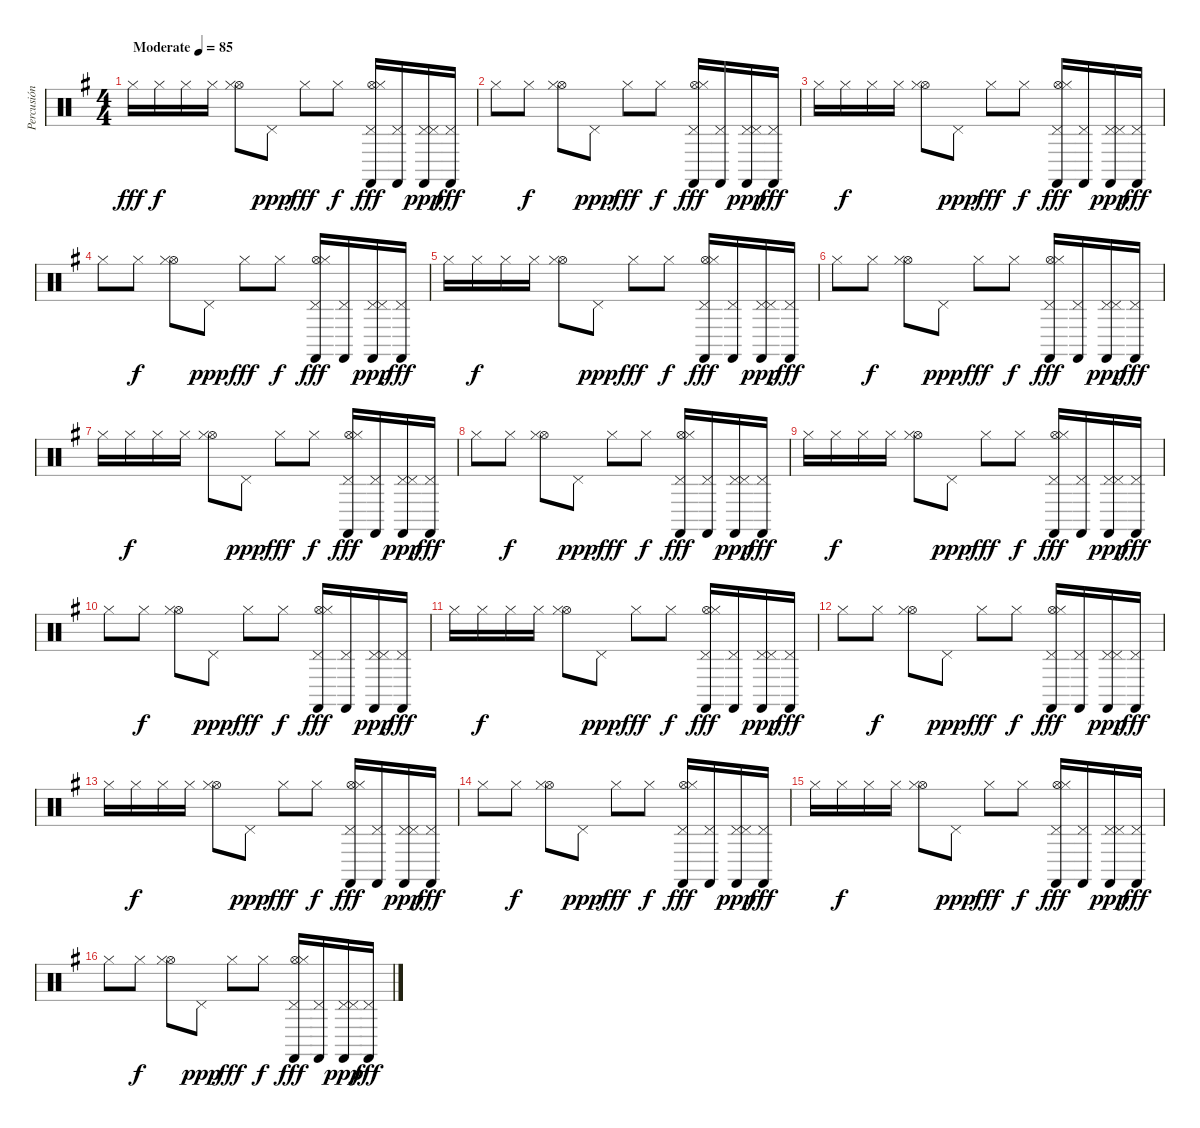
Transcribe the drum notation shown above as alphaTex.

\track ("Percusión" "Percusión") {instrument percussion}
\staff {score}
\articulation defaults
\ts (4 4)
\tempo (85 "Moderate")
\clef neutral
\ks g "Hi-Hat (closed)".16{dy fff} "Hi-Hat (closed)".16{dy f} "Hi-Hat (closed)".16 "Hi-Hat (closed)".16
("Hi-Hat (open)" "Hi-Hat (closed)").8 "Pedal Hi-Hat (hit)".8{dy ppp} "Hi-Hat (closed)".8{dy fff} "Hi-Hat (closed)".8{dy f} ("Pedal Hi-Hat (hit)" "Castanets (hit)" "Hi-Hat (open)" "Hi-Hat (closed)").16{dy fff} ("Pedal Hi-Hat (hit)" "Castanets (hit)").16 ("Pedal Hi-Hat (hit)" "Castanets (hit)" "Pedal Hi-Hat (hit)").16{dy ppp} ("Pedal Hi-Hat (hit)" "Castanets (hit)").16{dy fff} |
"Hi-Hat (closed)".8 "Hi-Hat (closed)".8{dy f} ("Hi-Hat (open)" "Hi-Hat (closed)").8 "Pedal Hi-Hat (hit)".8{dy ppp} "Hi-Hat (closed)".8{dy fff} "Hi-Hat (closed)".8{dy f} ("Pedal Hi-Hat (hit)" "Castanets (hit)" "Hi-Hat (open)" "Hi-Hat (closed)").16{dy fff} ("Pedal Hi-Hat (hit)" "Castanets (hit)").16 ("Pedal Hi-Hat (hit)" "Castanets (hit)" "Pedal Hi-Hat (hit)").16{dy ppp} ("Pedal Hi-Hat (hit)" "Castanets (hit)").16{dy fff} |
"Hi-Hat (closed)".16 "Hi-Hat (closed)".16{dy f} "Hi-Hat (closed)".16 "Hi-Hat (closed)".16 ("Hi-Hat (open)" "Hi-Hat (closed)").8 "Pedal Hi-Hat (hit)".8{dy ppp} "Hi-Hat (closed)".8{dy fff} "Hi-Hat (closed)".8{dy f} ("Pedal Hi-Hat (hit)" "Castanets (hit)" "Hi-Hat (open)" "Hi-Hat (closed)").16{dy fff} ("Pedal Hi-Hat (hit)" "Castanets (hit)").16 ("Pedal Hi-Hat (hit)" "Castanets (hit)" "Pedal Hi-Hat (hit)").16{dy ppp} ("Pedal Hi-Hat (hit)" "Castanets (hit)").16{dy fff} |
"Hi-Hat (closed)".8 "Hi-Hat (closed)".8{dy f} ("Hi-Hat (open)" "Hi-Hat (closed)").8 "Pedal Hi-Hat (hit)".8{dy ppp} "Hi-Hat (closed)".8{dy fff} "Hi-Hat (closed)".8{dy f} ("Pedal Hi-Hat (hit)" "Castanets (hit)" "Hi-Hat (open)" "Hi-Hat (closed)").16{dy fff} ("Pedal Hi-Hat (hit)" "Castanets (hit)").16 ("Pedal Hi-Hat (hit)" "Castanets (hit)" "Pedal Hi-Hat (hit)").16{dy ppp} ("Pedal Hi-Hat (hit)" "Castanets (hit)").16{dy fff} |
"Hi-Hat (closed)".16 "Hi-Hat (closed)".16{dy f} "Hi-Hat (closed)".16 "Hi-Hat (closed)".16 ("Hi-Hat (open)" "Hi-Hat (closed)").8 "Pedal Hi-Hat (hit)".8{dy ppp} "Hi-Hat (closed)".8{dy fff} "Hi-Hat (closed)".8{dy f} ("Pedal Hi-Hat (hit)" "Castanets (hit)" "Hi-Hat (open)" "Hi-Hat (closed)").16{dy fff} ("Pedal Hi-Hat (hit)" "Castanets (hit)").16 ("Pedal Hi-Hat (hit)" "Castanets (hit)" "Pedal Hi-Hat (hit)").16{dy ppp} ("Pedal Hi-Hat (hit)" "Castanets (hit)").16{dy fff} |
"Hi-Hat (closed)".8 "Hi-Hat (closed)".8{dy f} ("Hi-Hat (open)" "Hi-Hat (closed)").8 "Pedal Hi-Hat (hit)".8{dy ppp} "Hi-Hat (closed)".8{dy fff} "Hi-Hat (closed)".8{dy f} ("Pedal Hi-Hat (hit)" "Castanets (hit)" "Hi-Hat (open)" "Hi-Hat (closed)").16{dy fff} ("Pedal Hi-Hat (hit)" "Castanets (hit)").16 ("Pedal Hi-Hat (hit)" "Castanets (hit)" "Pedal Hi-Hat (hit)").16{dy ppp} ("Pedal Hi-Hat (hit)" "Castanets (hit)").16{dy fff} |
"Hi-Hat (closed)".16 "Hi-Hat (closed)".16{dy f} "Hi-Hat (closed)".16 "Hi-Hat (closed)".16 ("Hi-Hat (open)" "Hi-Hat (closed)").8 "Pedal Hi-Hat (hit)".8{dy ppp} "Hi-Hat (closed)".8{dy fff} "Hi-Hat (closed)".8{dy f} ("Pedal Hi-Hat (hit)" "Castanets (hit)" "Hi-Hat (open)" "Hi-Hat (closed)").16{dy fff} ("Pedal Hi-Hat (hit)" "Castanets (hit)").16 ("Pedal Hi-Hat (hit)" "Castanets (hit)" "Pedal Hi-Hat (hit)").16{dy ppp} ("Pedal Hi-Hat (hit)" "Castanets (hit)").16{dy fff} |
"Hi-Hat (closed)".8 "Hi-Hat (closed)".8{dy f} ("Hi-Hat (open)" "Hi-Hat (closed)").8 "Pedal Hi-Hat (hit)".8{dy ppp} "Hi-Hat (closed)".8{dy fff} "Hi-Hat (closed)".8{dy f} ("Pedal Hi-Hat (hit)" "Castanets (hit)" "Hi-Hat (open)" "Hi-Hat (closed)").16{dy fff} ("Pedal Hi-Hat (hit)" "Castanets (hit)").16 ("Pedal Hi-Hat (hit)" "Castanets (hit)" "Pedal Hi-Hat (hit)").16{dy ppp} ("Pedal Hi-Hat (hit)" "Castanets (hit)").16{dy fff} |
"Hi-Hat (closed)".16 "Hi-Hat (closed)".16{dy f} "Hi-Hat (closed)".16 "Hi-Hat (closed)".16 ("Hi-Hat (open)" "Hi-Hat (closed)").8 "Pedal Hi-Hat (hit)".8{dy ppp} "Hi-Hat (closed)".8{dy fff} "Hi-Hat (closed)".8{dy f} ("Pedal Hi-Hat (hit)" "Castanets (hit)" "Hi-Hat (open)" "Hi-Hat (closed)").16{dy fff} ("Pedal Hi-Hat (hit)" "Castanets (hit)").16 ("Pedal Hi-Hat (hit)" "Castanets (hit)" "Pedal Hi-Hat (hit)").16{dy ppp} ("Pedal Hi-Hat (hit)" "Castanets (hit)").16{dy fff} |
"Hi-Hat (closed)".8 "Hi-Hat (closed)".8{dy f} ("Hi-Hat (open)" "Hi-Hat (closed)").8 "Pedal Hi-Hat (hit)".8{dy ppp} "Hi-Hat (closed)".8{dy fff} "Hi-Hat (closed)".8{dy f} ("Pedal Hi-Hat (hit)" "Castanets (hit)" "Hi-Hat (open)" "Hi-Hat (closed)").16{dy fff} ("Pedal Hi-Hat (hit)" "Castanets (hit)").16 ("Pedal Hi-Hat (hit)" "Castanets (hit)" "Pedal Hi-Hat (hit)").16{dy ppp} ("Pedal Hi-Hat (hit)" "Castanets (hit)").16{dy fff} |
"Hi-Hat (closed)".16 "Hi-Hat (closed)".16{dy f} "Hi-Hat (closed)".16 "Hi-Hat (closed)".16 ("Hi-Hat (open)" "Hi-Hat (closed)").8 "Pedal Hi-Hat (hit)".8{dy ppp} "Hi-Hat (closed)".8{dy fff} "Hi-Hat (closed)".8{dy f} ("Pedal Hi-Hat (hit)" "Castanets (hit)" "Hi-Hat (open)" "Hi-Hat (closed)").16{dy fff} ("Pedal Hi-Hat (hit)" "Castanets (hit)").16 ("Pedal Hi-Hat (hit)" "Castanets (hit)" "Pedal Hi-Hat (hit)").16{dy ppp} ("Pedal Hi-Hat (hit)" "Castanets (hit)").16{dy fff} |
"Hi-Hat (closed)".8 "Hi-Hat (closed)".8{dy f} ("Hi-Hat (open)" "Hi-Hat (closed)").8 "Pedal Hi-Hat (hit)".8{dy ppp} "Hi-Hat (closed)".8{dy fff} "Hi-Hat (closed)".8{dy f} ("Pedal Hi-Hat (hit)" "Castanets (hit)" "Hi-Hat (open)" "Hi-Hat (closed)").16{dy fff} ("Pedal Hi-Hat (hit)" "Castanets (hit)").16 ("Pedal Hi-Hat (hit)" "Castanets (hit)" "Pedal Hi-Hat (hit)").16{dy ppp} ("Pedal Hi-Hat (hit)" "Castanets (hit)").16{dy fff} |
"Hi-Hat (closed)".16 "Hi-Hat (closed)".16{dy f} "Hi-Hat (closed)".16 "Hi-Hat (closed)".16 ("Hi-Hat (open)" "Hi-Hat (closed)").8 "Pedal Hi-Hat (hit)".8{dy ppp} "Hi-Hat (closed)".8{dy fff} "Hi-Hat (closed)".8{dy f} ("Pedal Hi-Hat (hit)" "Castanets (hit)" "Hi-Hat (open)" "Hi-Hat (closed)").16{dy fff} ("Pedal Hi-Hat (hit)" "Castanets (hit)").16 ("Pedal Hi-Hat (hit)" "Castanets (hit)" "Pedal Hi-Hat (hit)").16{dy ppp} ("Pedal Hi-Hat (hit)" "Castanets (hit)").16{dy fff} |
"Hi-Hat (closed)".8 "Hi-Hat (closed)".8{dy f} ("Hi-Hat (open)" "Hi-Hat (closed)").8 "Pedal Hi-Hat (hit)".8{dy ppp} "Hi-Hat (closed)".8{dy fff} "Hi-Hat (closed)".8{dy f} ("Pedal Hi-Hat (hit)" "Castanets (hit)" "Hi-Hat (open)" "Hi-Hat (closed)").16{dy fff} ("Pedal Hi-Hat (hit)" "Castanets (hit)").16 ("Pedal Hi-Hat (hit)" "Castanets (hit)" "Pedal Hi-Hat (hit)").16{dy ppp} ("Pedal Hi-Hat (hit)" "Castanets (hit)").16{dy fff} |
"Hi-Hat (closed)".16 "Hi-Hat (closed)".16{dy f} "Hi-Hat (closed)".16 "Hi-Hat (closed)".16 ("Hi-Hat (open)" "Hi-Hat (closed)").8 "Pedal Hi-Hat (hit)".8{dy ppp} "Hi-Hat (closed)".8{dy fff} "Hi-Hat (closed)".8{dy f} ("Pedal Hi-Hat (hit)" "Castanets (hit)" "Hi-Hat (open)" "Hi-Hat (closed)").16{dy fff} ("Pedal Hi-Hat (hit)" "Castanets (hit)").16 ("Pedal Hi-Hat (hit)" "Castanets (hit)" "Pedal Hi-Hat (hit)").16{dy ppp} ("Pedal Hi-Hat (hit)" "Castanets (hit)").16{dy fff} |
"Hi-Hat (closed)".8 "Hi-Hat (closed)".8{dy f} ("Hi-Hat (open)" "Hi-Hat (closed)").8 "Pedal Hi-Hat (hit)".8{dy ppp} "Hi-Hat (closed)".8{dy fff} "Hi-Hat (closed)".8{dy f} ("Pedal Hi-Hat (hit)" "Castanets (hit)" "Hi-Hat (open)" "Hi-Hat (closed)").16{dy fff} ("Pedal Hi-Hat (hit)" "Castanets (hit)").16 ("Pedal Hi-Hat (hit)" "Castanets (hit)" "Pedal Hi-Hat (hit)").16{dy ppp} ("Pedal Hi-Hat (hit)" "Castanets (hit)").16{dy fff}
